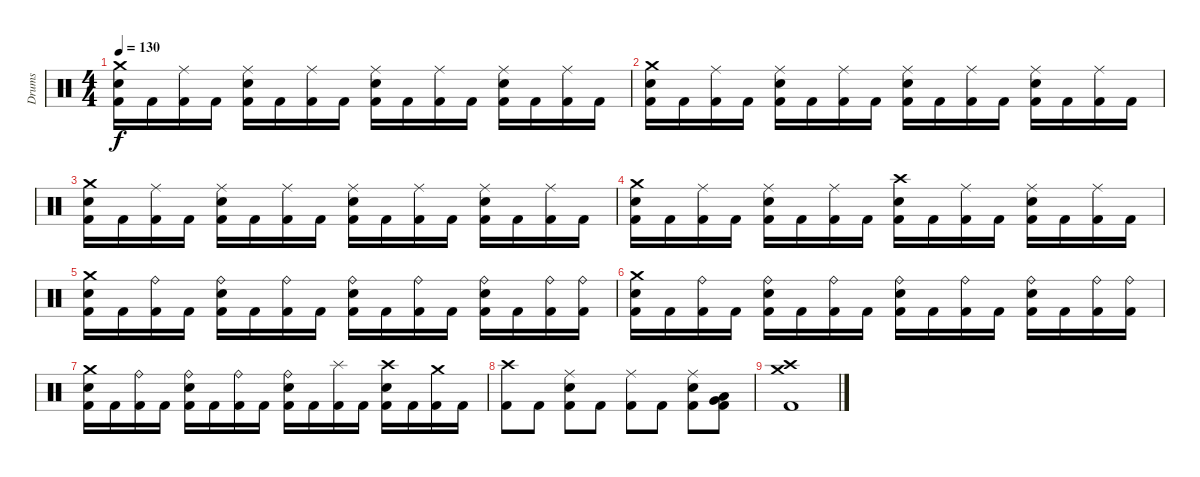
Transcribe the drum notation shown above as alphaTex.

\track ("Drums" "Drums") {instrument percussion}
\staff {score}
\articulation defaults
\ts (4 4)
\tempo 130
\clef neutral
\ks c
("Crash medium (hit)" "Electric Snare (hit)" "Kick (hit) 2").16{dy f} "Kick (hit) 2".16 ("Ride (middle)" "Kick (hit) 2").16 "Kick (hit) 2".16 ("Ride (middle)" "Electric Snare (hit)" "Kick (hit) 2").16 "Kick (hit) 2".16 ("Ride (middle)" "Kick (hit) 2").16 "Kick (hit) 2".16 ("Ride (middle)" "Electric Snare (hit)" "Kick (hit) 2").16 "Kick (hit) 2".16 ("Ride (middle)" "Kick (hit) 2").16 "Kick (hit) 2".16 ("Ride (middle)" "Electric Snare (hit)" "Kick (hit) 2").16 "Kick (hit) 2".16 ("Ride (middle)" "Kick (hit) 2").16 "Kick (hit) 2".16 |
("Crash medium (hit)" "Electric Snare (hit)" "Kick (hit) 2").16 "Kick (hit) 2".16 ("Ride (middle)" "Kick (hit) 2").16 "Kick (hit) 2".16 ("Ride (middle)" "Electric Snare (hit)" "Kick (hit) 2").16 "Kick (hit) 2".16 ("Ride (middle)" "Kick (hit) 2").16 "Kick (hit) 2".16 ("Ride (middle)" "Electric Snare (hit)" "Kick (hit) 2").16 "Kick (hit) 2".16 ("Ride (middle)" "Kick (hit) 2").16 "Kick (hit) 2".16 ("Ride (middle)" "Electric Snare (hit)" "Kick (hit) 2").16 "Kick (hit) 2".16 ("Ride (middle)" "Kick (hit) 2").16 "Kick (hit) 2".16 |
("Crash medium (hit)" "Electric Snare (hit)" "Kick (hit) 2").16 "Kick (hit) 2".16 ("Ride (middle)" "Kick (hit) 2").16 "Kick (hit) 2".16 ("Ride (middle)" "Electric Snare (hit)" "Kick (hit) 2").16 "Kick (hit) 2".16 ("Ride (middle)" "Kick (hit) 2").16 "Kick (hit) 2".16 ("Ride (middle)" "Electric Snare (hit)" "Kick (hit) 2").16 "Kick (hit) 2".16 ("Ride (middle)" "Kick (hit) 2").16 "Kick (hit) 2".16 ("Ride (middle)" "Electric Snare (hit)" "Kick (hit) 2").16 "Kick (hit) 2".16 ("Ride (middle)" "Kick (hit) 2").16 "Kick (hit) 2".16 |
("Crash medium (hit)" "Electric Snare (hit)" "Kick (hit) 2").16 "Kick (hit) 2".16 ("Ride (middle)" "Kick (hit) 2").16 "Kick (hit) 2".16 ("Ride (middle)" "Electric Snare (hit)" "Kick (hit) 2").16 "Kick (hit) 2".16 ("Ride (middle)" "Kick (hit) 2").16 "Kick (hit) 2".16 ("Crash high (hit)" "Electric Snare (hit)" "Kick (hit) 2").16 "Kick (hit) 2".16 ("Ride (middle)" "Kick (hit) 2").16 "Kick (hit) 2".16 ("Ride (middle)" "Electric Snare (hit)" "Kick (hit) 2").16 "Kick (hit) 2".16 ("Ride (middle)" "Kick (hit) 2").16 "Kick (hit) 2".16 |
("Crash medium (hit)" "Electric Snare (hit)" "Kick (hit) 2").16 "Kick (hit) 2".16 ("Ride (bell)" "Kick (hit) 2").16 "Kick (hit) 2".16 ("Ride (bell)" "Electric Snare (hit)" "Kick (hit) 2").16 "Kick (hit) 2".16 ("Ride (bell)" "Kick (hit) 2").16 "Kick (hit) 2".16 ("Ride (bell)" "Electric Snare (hit)" "Kick (hit) 2").16 "Kick (hit) 2".16 ("Ride (bell)" "Kick (hit) 2").16 "Kick (hit) 2".16 ("Ride (bell)" "Electric Snare (hit)" "Kick (hit) 2").16 "Kick (hit) 2".16 ("Ride (bell)" "Kick (hit) 2").16 ("Ride (bell)" "Kick (hit) 2").16 |
("Crash medium (hit)" "Electric Snare (hit)" "Kick (hit) 2").16 "Kick (hit) 2".16 ("Ride (bell)" "Kick (hit) 2").16 "Kick (hit) 2".16 ("Ride (bell)" "Electric Snare (hit)" "Kick (hit) 2").16 "Kick (hit) 2".16 ("Ride (bell)" "Kick (hit) 2").16 "Kick (hit) 2".16 ("Ride (bell)" "Electric Snare (hit)" "Kick (hit) 2").16 "Kick (hit) 2".16 ("Ride (bell)" "Kick (hit) 2").16 "Kick (hit) 2".16 ("Ride (bell)" "Electric Snare (hit)" "Kick (hit) 2").16 "Kick (hit) 2".16 ("Ride (bell)" "Kick (hit) 2").16 ("Ride (bell)" "Kick (hit) 2").16 |
("Crash medium (hit)" "Electric Snare (hit)" "Kick (hit) 2").16 "Kick (hit) 2".16 ("Ride (bell)" "Kick (hit) 2").16 "Kick (hit) 2".16 ("Ride (bell)" "Electric Snare (hit)" "Kick (hit) 2").16 "Kick (hit) 2".16 ("Ride (bell)" "Kick (hit) 2").16 "Kick (hit) 2".16 ("Ride (bell)" "Electric Snare (hit)" "Kick (hit) 2").16 "Kick (hit) 2".16 ("Splash (hit)" "Kick (hit) 2").16 "Kick (hit) 2".16 ("Crash high (hit)" "Electric Snare (hit)" "Kick (hit) 2").16 "Kick (hit) 2".16 ("Crash medium (hit)" "Kick (hit) 2").16 "Kick (hit) 2".16 |
("Crash high (hit)" "Kick (hit) 2").8 "Kick (hit) 2".8 ("Ride (middle)" "Electric Snare (hit)" "Kick (hit) 2").8 "Kick (hit) 2".8 ("Ride (middle)" "Kick (hit) 2").8 "Kick (hit) 2".8 ("Ride (middle)" "Electric Snare (hit)" "Kick (hit) 2").8 ("Low Floor Tom (hit)" "Very Low Tom (hit)" "Kick (hit) 2").8 |
("Crash medium (hit)" "Crash high (hit)" "Kick (hit) 2").1
